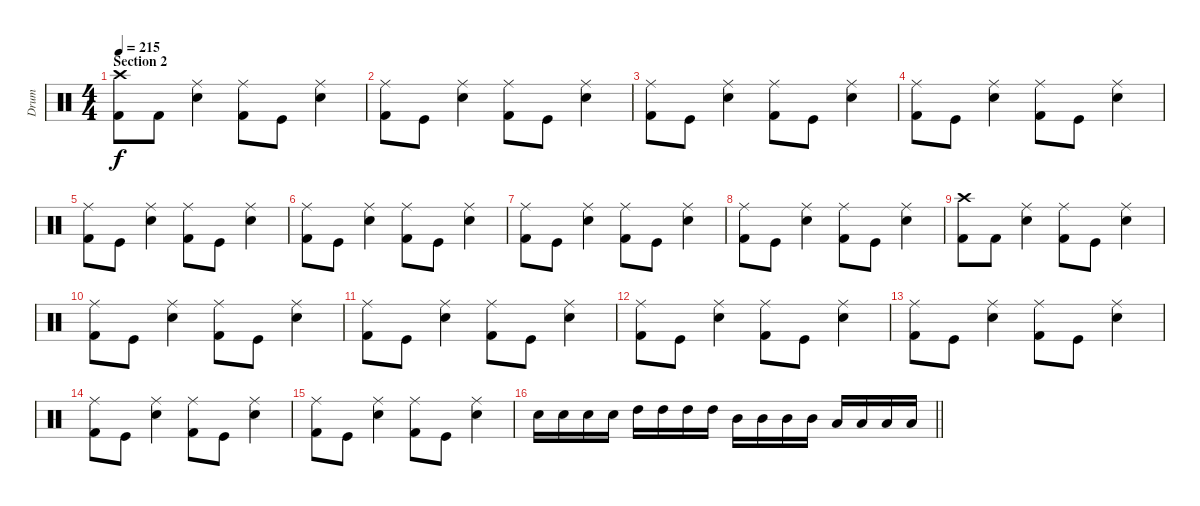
\track ("Drum" "Drum") {instrument percussion}
\staff {score}
\articulation defaults
\ts (4 4)
\section ("" "Section 2")
\tempo 215
\clef neutral
\ks c
("Kick (hit) 2" "Crash high (hit)").8{dy f} "Kick (hit) 2".8 ("Electric Snare (hit)" "Ride (middle)").4 ("Kick (hit) 2" "Ride (middle)").8 "Kick (hit)".8 ("Electric Snare (hit)" "Ride (middle)").4 |
("Kick (hit) 2" "Ride (middle)").8 "Kick (hit)".8 ("Electric Snare (hit)" "Ride (middle)").4 ("Kick (hit) 2" "Ride (middle)").8 "Kick (hit)".8 ("Electric Snare (hit)" "Ride (middle)").4 |
("Kick (hit) 2" "Ride (middle)").8 "Kick (hit)".8 ("Electric Snare (hit)" "Ride (middle)").4 ("Kick (hit) 2" "Ride (middle)").8 "Kick (hit)".8 ("Electric Snare (hit)" "Ride (middle)").4 |
("Kick (hit) 2" "Ride (middle)").8 "Kick (hit)".8 ("Electric Snare (hit)" "Ride (middle)").4 ("Kick (hit) 2" "Ride (middle)").8 "Kick (hit)".8 ("Electric Snare (hit)" "Ride (middle)").4 |
("Kick (hit) 2" "Ride (middle)").8 "Kick (hit)".8 ("Electric Snare (hit)" "Ride (middle)").4 ("Kick (hit) 2" "Ride (middle)").8 "Kick (hit)".8 ("Electric Snare (hit)" "Ride (middle)").4 |
("Kick (hit) 2" "Ride (middle)").8 "Kick (hit)".8 ("Electric Snare (hit)" "Ride (middle)").4 ("Kick (hit) 2" "Ride (middle)").8 "Kick (hit)".8 ("Electric Snare (hit)" "Ride (middle)").4 |
("Kick (hit) 2" "Ride (middle)").8 "Kick (hit)".8 ("Electric Snare (hit)" "Ride (middle)").4 ("Kick (hit) 2" "Ride (middle)").8 "Kick (hit)".8 ("Electric Snare (hit)" "Ride (middle)").4 |
("Kick (hit) 2" "Ride (middle)").8 "Kick (hit)".8 ("Electric Snare (hit)" "Ride (middle)").4 ("Kick (hit) 2" "Ride (middle)").8 "Kick (hit)".8 ("Electric Snare (hit)" "Ride (middle)").4 |
("Kick (hit) 2" "Crash high (hit)").8 "Kick (hit) 2".8 ("Electric Snare (hit)" "Ride (middle)").4 ("Kick (hit) 2" "Ride (middle)").8 "Kick (hit)".8 ("Electric Snare (hit)" "Ride (middle)").4 |
("Kick (hit) 2" "Ride (middle)").8 "Kick (hit)".8 ("Electric Snare (hit)" "Ride (middle)").4 ("Kick (hit) 2" "Ride (middle)").8 "Kick (hit)".8 ("Electric Snare (hit)" "Ride (middle)").4 |
("Kick (hit) 2" "Ride (middle)").8 "Kick (hit)".8 ("Electric Snare (hit)" "Ride (middle)").4 ("Kick (hit) 2" "Ride (middle)").8 "Kick (hit)".8 ("Electric Snare (hit)" "Ride (middle)").4 |
("Kick (hit) 2" "Ride (middle)").8 "Kick (hit)".8 ("Electric Snare (hit)" "Ride (middle)").4 ("Kick (hit) 2" "Ride (middle)").8 "Kick (hit)".8 ("Electric Snare (hit)" "Ride (middle)").4 |
("Kick (hit) 2" "Ride (middle)").8 "Kick (hit)".8 ("Electric Snare (hit)" "Ride (middle)").4 ("Kick (hit) 2" "Ride (middle)").8 "Kick (hit)".8 ("Electric Snare (hit)" "Ride (middle)").4 |
("Kick (hit) 2" "Ride (middle)").8 "Kick (hit)".8 ("Electric Snare (hit)" "Ride (middle)").4 ("Kick (hit) 2" "Ride (middle)").8 "Kick (hit)".8 ("Electric Snare (hit)" "Ride (middle)").4 |
("Kick (hit) 2" "Ride (middle)").8 "Kick (hit)".8 ("Electric Snare (hit)" "Ride (middle)").4 ("Kick (hit) 2" "Ride (middle)").8 "Kick (hit)".8 ("Electric Snare (hit)" "Ride (middle)").4 |
\barLineRight lightlight "Electric Snare (hit)".16 "Electric Snare (hit)".16 "Electric Snare (hit)".16 "Electric Snare (hit)".16 "High Tom (hit)".16 "High Tom (hit)".16 "High Tom (hit)".16 "High Tom (hit)".16 "Mid Tom (hit)".16 "Mid Tom (hit)".16 "Mid Tom (hit)".16 "Mid Tom (hit)".16 "Low Tom (hit)".16 "Low Tom (hit)".16 "Low Tom (hit)".16 "Low Tom (hit)".16
